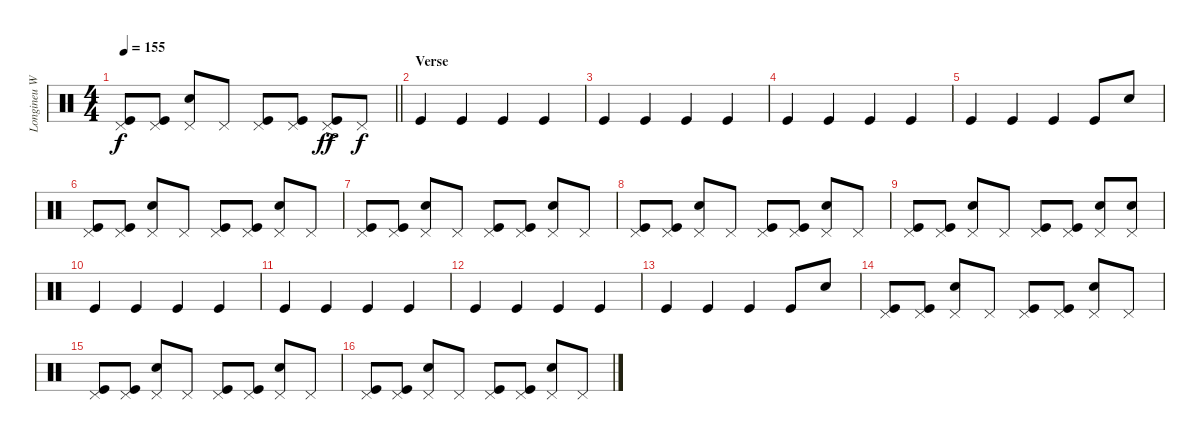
\track ("Longineu W. Parsons III - Drums" "Longineu W") {instrument percussion}
\staff {score}
\articulation defaults
\ts (4 4)
\tempo 155
\clef neutral
\barLineRight lightlight
\ks c
("Pedal Hi-Hat (hit)" "Kick (hit)").8{dy f} ("Pedal Hi-Hat (hit)" "Kick (hit)").8 ("Pedal Hi-Hat (hit)" "Snare (hit) 2").8 "Pedal Hi-Hat (hit)".8 ("Pedal Hi-Hat (hit)" "Kick (hit)").8 ("Pedal Hi-Hat (hit)" "Kick (hit)").8 ("Pedal Hi-Hat (hit)" "Kick (hit)"{ac}).8{dy ff} "Pedal Hi-Hat (hit)".8{dy f} |
\section ("" "Verse")
"Kick (hit)".4 "Kick (hit)".4 "Kick (hit)".4 "Kick (hit)".4 |
"Kick (hit)".4 "Kick (hit)".4 "Kick (hit)".4 "Kick (hit)".4 |
"Kick (hit)".4 "Kick (hit)".4 "Kick (hit)".4 "Kick (hit)".4 |
"Kick (hit)".4 "Kick (hit)".4 "Kick (hit)".4 "Kick (hit)".8 "Snare (hit) 2".8 |
("Pedal Hi-Hat (hit)" "Kick (hit)").8 ("Pedal Hi-Hat (hit)" "Kick (hit)").8 ("Pedal Hi-Hat (hit)" "Snare (hit) 2").8 "Pedal Hi-Hat (hit)".8 ("Pedal Hi-Hat (hit)" "Kick (hit)").8 ("Pedal Hi-Hat (hit)" "Kick (hit)").8 ("Pedal Hi-Hat (hit)" "Snare (hit) 2").8 "Pedal Hi-Hat (hit)".8 |
("Pedal Hi-Hat (hit)" "Kick (hit)").8 ("Pedal Hi-Hat (hit)" "Kick (hit)").8 ("Pedal Hi-Hat (hit)" "Snare (hit) 2").8 "Pedal Hi-Hat (hit)".8 ("Pedal Hi-Hat (hit)" "Kick (hit)").8 ("Pedal Hi-Hat (hit)" "Kick (hit)").8 ("Pedal Hi-Hat (hit)" "Snare (hit) 2").8 "Pedal Hi-Hat (hit)".8 |
("Pedal Hi-Hat (hit)" "Kick (hit)").8 ("Pedal Hi-Hat (hit)" "Kick (hit)").8 ("Pedal Hi-Hat (hit)" "Snare (hit) 2").8 "Pedal Hi-Hat (hit)".8 ("Pedal Hi-Hat (hit)" "Kick (hit)").8 ("Pedal Hi-Hat (hit)" "Kick (hit)").8 ("Pedal Hi-Hat (hit)" "Snare (hit) 2").8 "Pedal Hi-Hat (hit)".8 |
("Pedal Hi-Hat (hit)" "Kick (hit)").8 ("Pedal Hi-Hat (hit)" "Kick (hit)").8 ("Pedal Hi-Hat (hit)" "Snare (hit) 2").8 "Pedal Hi-Hat (hit)".8 ("Pedal Hi-Hat (hit)" "Kick (hit)").8 ("Pedal Hi-Hat (hit)" "Kick (hit)").8 ("Pedal Hi-Hat (hit)" "Snare (hit) 2").8 ("Pedal Hi-Hat (hit)" "Snare (hit) 2").8 |
"Kick (hit)".4 "Kick (hit)".4 "Kick (hit)".4 "Kick (hit)".4 |
"Kick (hit)".4 "Kick (hit)".4 "Kick (hit)".4 "Kick (hit)".4 |
"Kick (hit)".4 "Kick (hit)".4 "Kick (hit)".4 "Kick (hit)".4 |
"Kick (hit)".4 "Kick (hit)".4 "Kick (hit)".4 "Kick (hit)".8 "Snare (hit) 2".8 |
("Pedal Hi-Hat (hit)" "Kick (hit)").8 ("Pedal Hi-Hat (hit)" "Kick (hit)").8 ("Pedal Hi-Hat (hit)" "Snare (hit) 2").8 "Pedal Hi-Hat (hit)".8 ("Pedal Hi-Hat (hit)" "Kick (hit)").8 ("Pedal Hi-Hat (hit)" "Kick (hit)").8 ("Pedal Hi-Hat (hit)" "Snare (hit) 2").8 "Pedal Hi-Hat (hit)".8 |
("Pedal Hi-Hat (hit)" "Kick (hit)").8 ("Pedal Hi-Hat (hit)" "Kick (hit)").8 ("Pedal Hi-Hat (hit)" "Snare (hit) 2").8 "Pedal Hi-Hat (hit)".8 ("Pedal Hi-Hat (hit)" "Kick (hit)").8 ("Pedal Hi-Hat (hit)" "Kick (hit)").8 ("Pedal Hi-Hat (hit)" "Snare (hit) 2").8 "Pedal Hi-Hat (hit)".8 |
("Pedal Hi-Hat (hit)" "Kick (hit)").8 ("Pedal Hi-Hat (hit)" "Kick (hit)").8 ("Pedal Hi-Hat (hit)" "Snare (hit) 2").8 "Pedal Hi-Hat (hit)".8 ("Pedal Hi-Hat (hit)" "Kick (hit)").8 ("Pedal Hi-Hat (hit)" "Kick (hit)").8 ("Pedal Hi-Hat (hit)" "Snare (hit) 2").8 "Pedal Hi-Hat (hit)".8
